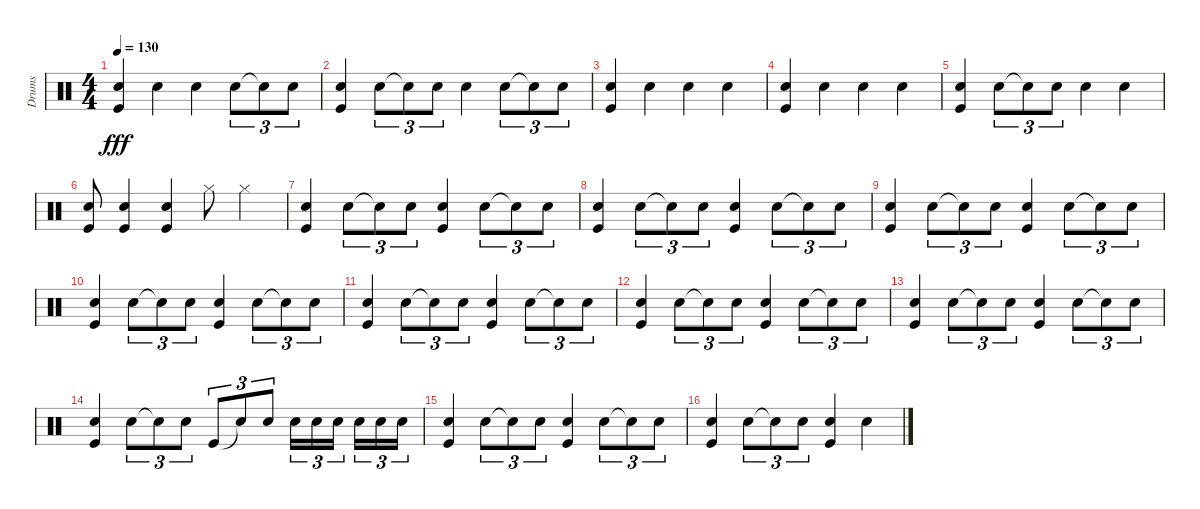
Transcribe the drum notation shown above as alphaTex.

\track ("Drums" "Drums") {instrument percussion}
\staff {score}
\articulation defaults
\ts (4 4)
\tempo 130
\clef neutral
\ks c
("Kick (hit)" "Snare (hit) 2").4{dy fff} "Snare (hit) 2".4 "Snare (hit) 2".4 "Snare (hit) 2".8{tu (3 2)} "Snare (hit)"{t}.8{tu (3 2)} "Snare (hit) 2".8{tu (3 2)} |
("Kick (hit)" "Snare (hit) 2").4 "Snare (hit) 2".8{tu (3 2)} "Snare (hit)"{t}.8{tu (3 2)} "Snare (hit) 2".8{tu (3 2)} "Snare (hit) 2".4 "Snare (hit) 2".8{tu (3 2)} "Snare (hit)"{t}.8{tu (3 2)} "Snare (hit) 2".8{tu (3 2)} |
("Kick (hit)" "Snare (hit) 2").4 "Snare (hit) 2".4 "Snare (hit) 2".4 "Snare (hit) 2".4 |
("Kick (hit)" "Snare (hit) 2").4 "Snare (hit) 2".4 "Snare (hit) 2".4 "Snare (hit) 2".4 |
("Kick (hit)" "Snare (hit) 2").4 "Hand Clap (hit)".8{tu (3 2)} "Snare (hit)"{t}.8{tu (3 2)} "Snare (hit) 2".8{tu (3 2)} "Snare (hit) 2".4 "Snare (hit) 2".4 |
("Kick (hit)" "Hand Clap (hit)").8 ("Hand Clap (hit)" "Kick (hit)").4 ("Hand Clap (hit)" "Kick (hit)").4 "Hi-Hat (closed)".8 "Hi-Hat (closed)".4 |
("Kick (hit)" "Snare (hit) 2").4 "Hand Clap (hit)".8{tu (3 2)} "Snare (hit)"{t}.8{tu (3 2)} "Snare (hit) 2".8{tu (3 2)} ("Snare (hit) 2" "Kick (hit)").4 "Hand Clap (hit)".8{tu (3 2)} "Snare (hit)"{t}.8{tu (3 2)} "Snare (hit) 2".8{tu (3 2)} |
("Kick (hit)" "Snare (hit) 2").4 "Hand Clap (hit)".8{tu (3 2)} "Snare (hit)"{t}.8{tu (3 2)} "Snare (hit) 2".8{tu (3 2)} ("Snare (hit) 2" "Kick (hit)").4 "Hand Clap (hit)".8{tu (3 2)} "Snare (hit)"{t}.8{tu (3 2)} "Snare (hit) 2".8{tu (3 2)} |
("Kick (hit)" "Snare (hit) 2").4 "Hand Clap (hit)".8{tu (3 2)} "Snare (hit)"{t}.8{tu (3 2)} "Snare (hit) 2".8{tu (3 2)} ("Snare (hit) 2" "Kick (hit)").4 "Hand Clap (hit)".8{tu (3 2)} "Snare (hit)"{t}.8{tu (3 2)} "Snare (hit) 2".8{tu (3 2)} |
("Snare (hit) 2" "Kick (hit)").4 "Hand Clap (hit)".8{tu (3 2)} "Snare (hit)"{t}.8{tu (3 2)} "Snare (hit) 2".8{tu (3 2)} ("Snare (hit) 2" "Kick (hit)").4 "Hand Clap (hit)".8{tu (3 2)} "Snare (hit)"{t}.8{tu (3 2)} "Snare (hit) 2".8{tu (3 2)} |
("Snare (hit) 2" "Kick (hit)").4 "Hand Clap (hit)".8{tu (3 2)} "Snare (hit)"{t}.8{tu (3 2)} "Snare (hit) 2".8{tu (3 2)} ("Kick (hit)" "Snare (hit) 2").4 "Hand Clap (hit)".8{tu (3 2)} "Snare (hit)"{t}.8{tu (3 2)} "Snare (hit) 2".8{tu (3 2)} |
("Snare (hit) 2" "Kick (hit)").4 "Hand Clap (hit)".8{tu (3 2)} "Snare (hit)"{t}.8{tu (3 2)} "Snare (hit) 2".8{tu (3 2)} ("Kick (hit)" "Snare (hit) 2").4 "Hand Clap (hit)".8{tu (3 2)} "Snare (hit)"{t}.8{tu (3 2)} "Snare (hit) 2".8{tu (3 2)} |
("Kick (hit)" "Snare (hit) 2").4 "Hand Clap (hit)".8{tu (3 2)} "Snare (hit)"{t}.8{tu (3 2)} "Snare (hit) 2".8{tu (3 2)} ("Kick (hit)" "Snare (hit) 2").4 "Hand Clap (hit)".8{tu (3 2)} "Snare (hit)"{t}.8{tu (3 2)} "Snare (hit) 2".8{tu (3 2)} |
("Kick (hit)" "Snare (hit) 2").4 "Hand Clap (hit)".8{tu (3 2)} "Snare (hit)"{t}.8{tu (3 2)} "Snare (hit) 2".8{tu (3 2)} "Kick (hit)".8{tu (3 2)} "Snare (hit)"{t}.8{tu (3 2)} "Snare (hit) 2".8{tu (3 2)} "Hand Clap (hit)".16{tu (3 2)} "Snare (hit) 2".16{tu (3 2)} "Snare (hit) 2".16{tu (3 2) beam splitsecondary} "Snare (hit) 2".16{tu (3 2)} "Snare (hit) 2".16{tu (3 2)} "Snare (hit) 2".16{tu (3 2)} |
("Kick (hit)" "Snare (hit) 2").4 "Hand Clap (hit)".8{tu (3 2)} "Snare (hit)"{t}.8{tu (3 2)} "Snare (hit) 2".8{tu (3 2)} ("Snare (hit) 2" "Kick (hit)").4 "Hand Clap (hit)".8{tu (3 2)} "Snare (hit)"{t}.8{tu (3 2)} "Snare (hit) 2".8{tu (3 2)} |
("Kick (hit)" "Snare (hit) 2").4 "Hand Clap (hit)".8{tu (3 2)} "Snare (hit)"{t}.8{tu (3 2)} "Snare (hit) 2".8{tu (3 2)} ("Hand Clap (hit)" "Kick (hit)").4 "Hand Clap (hit)".4
